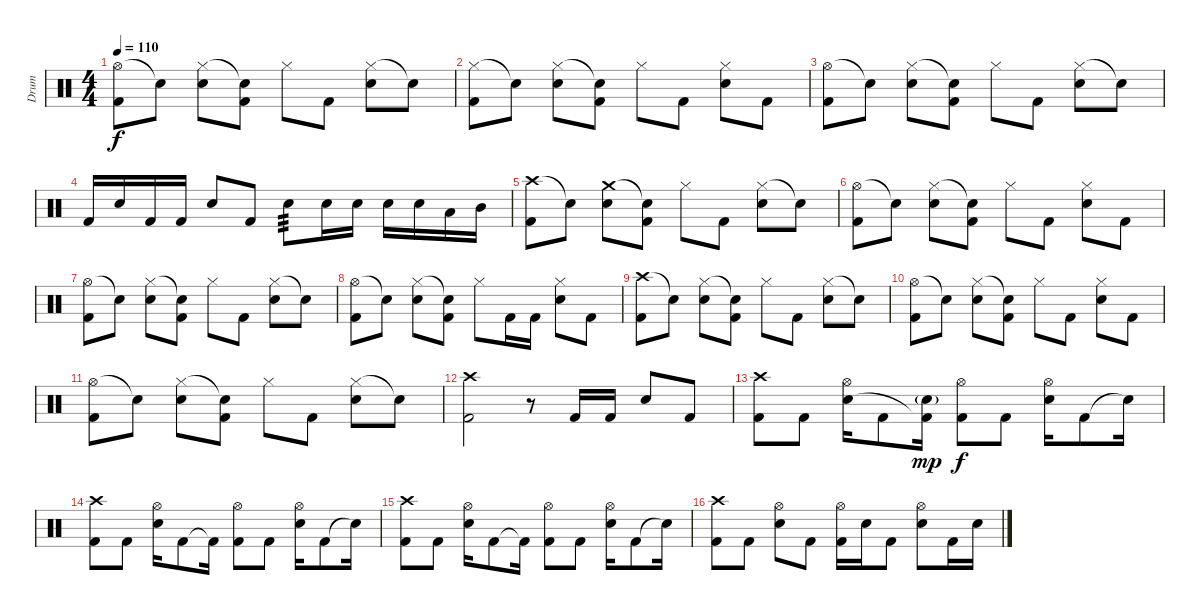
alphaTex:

\track ("Drum" "Drum") {instrument percussion}
\staff {score}
\articulation defaults
\ts (4 4)
\tempo 110
\clef neutral
\ks c
("Hi-Hat (open)" "Kick (hit) 2").8{dy f} "Snare (hit)"{t}.8 ("Hi-Hat (closed)" "Electric Snare (hit)").8 ("Snare (hit)"{t} "Kick (hit) 2").8 "Hi-Hat (closed)".8 "Kick (hit) 2".8 ("Hi-Hat (closed)" "Electric Snare (hit)").8 "Snare (hit)"{t}.8 |
("Hi-Hat (closed)" "Kick (hit) 2").8 "Snare (hit)"{t}.8 ("Hi-Hat (closed)" "Electric Snare (hit)").8 ("Snare (hit)"{t} "Kick (hit) 2").8 "Hi-Hat (closed)".8 "Kick (hit) 2".8 ("Hi-Hat (closed)" "Electric Snare (hit)").8 "Kick (hit) 2".8 |
("Hi-Hat (open)" "Kick (hit) 2").8 "Snare (hit)"{t}.8 ("Hi-Hat (closed)" "Electric Snare (hit)").8 ("Snare (hit)"{t} "Kick (hit) 2").8 "Hi-Hat (closed)".8 "Kick (hit) 2".8 ("Hi-Hat (closed)" "Electric Snare (hit)").8 "Snare (hit)"{t}.8 |
"Kick (hit) 2".16 "Electric Snare (hit)".16 "Kick (hit) 2".16 "Kick (hit) 2".16 "Electric Snare (hit)".8 "Kick (hit) 2".8 "Electric Snare (hit)".8{tp 3} "Electric Snare (hit)".16 "Electric Snare (hit)".16 "Electric Snare (hit)".16 "Electric Snare (hit)".16 "Low Tom (hit)".16 "Mid Tom (hit)".16 |
("Crash high (hit)" "Kick (hit) 2").8 "Snare (hit)"{t}.8 ("Crash medium (hit)" "Electric Snare (hit)").8 ("Snare (hit)"{t} "Kick (hit) 2").8 "Hi-Hat (closed)".8 "Kick (hit) 2".8 ("Hi-Hat (closed)" "Electric Snare (hit)").8 "Snare (hit)"{t}.8 |
("Hi-Hat (open)" "Kick (hit) 2").8 "Snare (hit)"{t}.8 ("Hi-Hat (closed)" "Electric Snare (hit)").8 ("Snare (hit)"{t} "Kick (hit) 2").8 "Hi-Hat (closed)".8 "Kick (hit) 2".8 ("Hi-Hat (closed)" "Electric Snare (hit)").8 "Kick (hit) 2".8 |
("Hi-Hat (open)" "Kick (hit) 2").8 "Snare (hit)"{t}.8 ("Hi-Hat (closed)" "Electric Snare (hit)").8 ("Snare (hit)"{t} "Kick (hit) 2").8 "Hi-Hat (closed)".8 "Kick (hit) 2".8 ("Hi-Hat (closed)" "Electric Snare (hit)").8 "Snare (hit)"{t}.8 |
("Hi-Hat (open)" "Kick (hit) 2").8 "Snare (hit)"{t}.8 ("Hi-Hat (closed)" "Electric Snare (hit)").8 ("Snare (hit)"{t} "Kick (hit) 2").8 "Hi-Hat (closed)".8 "Kick (hit) 2".16 "Kick (hit) 2".16 ("Hi-Hat (closed)" "Electric Snare (hit)").8 "Kick (hit) 2".8 |
("Crash high (hit)" "Kick (hit) 2").8 "Snare (hit)"{t}.8 ("Hi-Hat (closed)" "Electric Snare (hit)").8 ("Snare (hit)"{t} "Kick (hit) 2").8 "Hi-Hat (closed)".8 "Kick (hit) 2".8 ("Hi-Hat (closed)" "Electric Snare (hit)").8 "Snare (hit)"{t}.8 |
("Hi-Hat (open)" "Kick (hit) 2").8 "Snare (hit)"{t}.8 ("Hi-Hat (closed)" "Electric Snare (hit)").8 ("Snare (hit)"{t} "Kick (hit) 2").8 "Hi-Hat (closed)".8 "Kick (hit) 2".8 ("Hi-Hat (closed)" "Electric Snare (hit)").8 "Kick (hit) 2".8 |
("Hi-Hat (open)" "Kick (hit) 2").8 "Snare (hit)"{t}.8 ("Hi-Hat (closed)" "Electric Snare (hit)").8 ("Snare (hit)"{t} "Kick (hit) 2").8 "Hi-Hat (closed)".8 "Kick (hit) 2".8 ("Hi-Hat (closed)" "Electric Snare (hit)").8 "Snare (hit)"{t}.8 |
("Crash high (hit)" "Kick (hit) 2").2 r.8 "Kick (hit) 2".16 "Kick (hit) 2".16 "Electric Snare (hit)".8 "Kick (hit) 2".8 |
("Crash high (hit)" "Kick (hit) 2").8{volume 12} "Kick (hit) 2".8 ("Hi-Hat (open)" "Electric Snare (hit)").16 "Kick (hit) 2".8 ("Electric Snare (hit)"{g} "Kick (hit) 2"{t}).16{dy mp} ("Hi-Hat (open)" "Kick (hit) 2").8{dy f} "Kick (hit) 2".8 ("Hi-Hat (open)" "Electric Snare (hit)").16 "Kick (hit) 2".8 "Snare (hit)"{t}.16 |
("Crash high (hit)" "Kick (hit) 2").8 "Kick (hit) 2".8 ("Hi-Hat (open)" "Electric Snare (hit)").16 "Kick (hit) 2".8 "Kick (hit) 2"{t}.16 ("Hi-Hat (open)" "Kick (hit) 2").8 "Kick (hit) 2".8 ("Hi-Hat (open)" "Electric Snare (hit)").16 "Kick (hit) 2".8 "Snare (hit)"{t}.16 |
("Crash high (hit)" "Kick (hit) 2").8 "Kick (hit) 2".8 ("Hi-Hat (open)" "Electric Snare (hit)").16 "Kick (hit) 2".8 "Kick (hit) 2"{t}.16 ("Hi-Hat (open)" "Kick (hit) 2").8 "Kick (hit) 2".8 ("Hi-Hat (open)" "Electric Snare (hit)").16 "Kick (hit) 2".8 "Snare (hit)"{t}.16 |
("Crash high (hit)" "Kick (hit) 2").8 "Kick (hit) 2".8 ("Hi-Hat (open)" "Electric Snare (hit)").8 "Kick (hit) 2".8 ("Hi-Hat (open)" "Kick (hit) 2").16 "Electric Snare (hit)".16 "Kick (hit) 2".8 ("Hi-Hat (open)" "Electric Snare (hit)").8 "Kick (hit) 2".16 "Electric Snare (hit)".16
